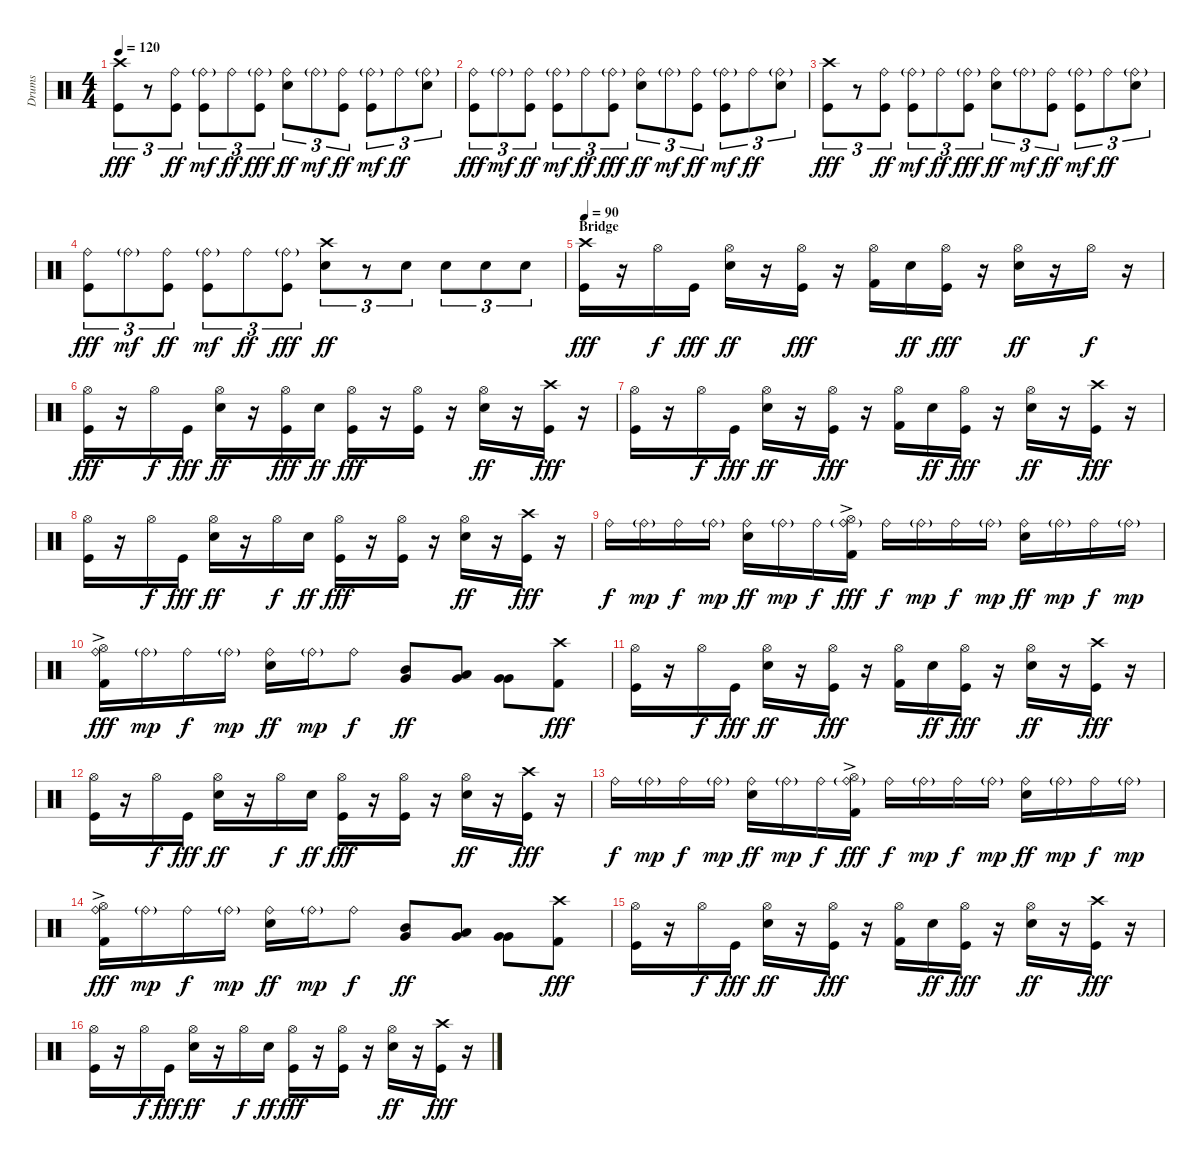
\track ("Drums" "Drums") {instrument percussion}
\staff {score}
\articulation defaults
\ts (4 4)
\tempo 120
\clef neutral
\ks c
("Crash high (hit)" "Kick (hit)").8{tu (3 2) dy fff} r.8{tu (3 2)} ("Ride (bell)" "Kick (hit)").8{tu (3 2) dy ff} ("Ride (bell)"{g} "Kick (hit)").8{tu (3 2) dy mf} "Ride (bell)".8{tu (3 2) dy ff} ("Ride (bell)"{g} "Kick (hit)").8{tu (3 2) dy fff} ("Ride (bell)" "Snare (hit) 2").8{tu (3 2) dy ff} "Ride (bell)"{g}.8{tu (3 2) dy mf} ("Ride (bell)" "Kick (hit)").8{tu (3 2) dy ff} ("Ride (bell)"{g} "Kick (hit)").8{tu (3 2) dy mf} "Ride (bell)".8{tu (3 2) dy ff} ("Ride (bell)"{g} "Snare (hit) 2").8{tu (3 2)} |
("Ride (bell)" "Kick (hit)").8{tu (3 2) dy fff} "Ride (bell)"{g}.8{tu (3 2) dy mf} ("Ride (bell)" "Kick (hit)").8{tu (3 2) dy ff} ("Ride (bell)"{g} "Kick (hit)").8{tu (3 2) dy mf} "Ride (bell)".8{tu (3 2) dy ff} ("Ride (bell)"{g} "Kick (hit)").8{tu (3 2) dy fff} ("Ride (bell)" "Snare (hit) 2").8{tu (3 2) dy ff} "Ride (bell)"{g}.8{tu (3 2) dy mf} ("Ride (bell)" "Kick (hit)").8{tu (3 2) dy ff} ("Ride (bell)"{g} "Kick (hit)").8{tu (3 2) dy mf} "Ride (bell)".8{tu (3 2) dy ff} ("Ride (bell)"{g} "Snare (hit) 2").8{tu (3 2)} |
("Crash high (hit)" "Kick (hit)").8{tu (3 2) dy fff} r.8{tu (3 2)} ("Ride (bell)" "Kick (hit)").8{tu (3 2) dy ff} ("Ride (bell)"{g} "Kick (hit)").8{tu (3 2) dy mf} "Ride (bell)".8{tu (3 2) dy ff} ("Ride (bell)"{g} "Kick (hit)").8{tu (3 2) dy fff} ("Ride (bell)" "Snare (hit) 2").8{tu (3 2) dy ff} "Ride (bell)"{g}.8{tu (3 2) dy mf} ("Ride (bell)" "Kick (hit)").8{tu (3 2) dy ff} ("Ride (bell)"{g} "Kick (hit)").8{tu (3 2) dy mf} "Ride (bell)".8{tu (3 2) dy ff} ("Ride (bell)"{g} "Snare (hit) 2").8{tu (3 2)} |
("Ride (bell)" "Kick (hit)").8{tu (3 2) dy fff} "Ride (bell)"{g}.8{tu (3 2) dy mf} ("Ride (bell)" "Kick (hit)").8{tu (3 2) dy ff} ("Ride (bell)"{g} "Kick (hit)").8{tu (3 2) dy mf} "Ride (bell)".8{tu (3 2) dy ff} ("Ride (bell)"{g} "Kick (hit)").8{tu (3 2) dy fff} ("Crash high (hit)" "Snare (hit) 2").8{tu (3 2) dy ff} r.8{tu (3 2)} "Snare (hit) 2".8{tu (3 2)} "Snare (hit) 2".8{tu (3 2)} "Snare (hit) 2".8{tu (3 2)} "Snare (hit) 2".8{tu (3 2)} |
\section ("" "Bridge")
\tempo 90
("Crash high (hit)" "Kick (hit)").16{dy fff} r.16 "Hi-Hat (open)".16{dy f} "Kick (hit)".16{dy fff} ("Hi-Hat (open)" "Snare (hit) 2").16{dy ff} r.16 ("Hi-Hat (open)" "Kick (hit)").16{dy fff} r.16 ("Hi-Hat (open)" "Kick (hit) 2").16 "Snare (hit) 2".16{dy ff} ("Hi-Hat (open)" "Kick (hit)").16{dy fff} r.16 ("Hi-Hat (open)" "Snare (hit) 2").16{dy ff} r.16 "Hi-Hat (open)".16{dy f} r.16 |
("Hi-Hat (open)" "Kick (hit)").16{dy fff} r.16 "Hi-Hat (open)".16{dy f} "Kick (hit)".16{dy fff} ("Hi-Hat (open)" "Snare (hit) 2").16{dy ff} r.16 ("Hi-Hat (open)" "Kick (hit)").16{dy fff} "Snare (hit) 2".16{dy ff} ("Hi-Hat (open)" "Kick (hit)").16{dy fff} r.16 ("Hi-Hat (open)" "Kick (hit)").16 r.16 ("Hi-Hat (open)" "Snare (hit) 2").16{dy ff} r.16 ("Crash high (hit)" "Kick (hit)").16{dy fff} r.16 |
("Hi-Hat (open)" "Kick (hit)").16 r.16 "Hi-Hat (open)".16{dy f} "Kick (hit)".16{dy fff} ("Hi-Hat (open)" "Snare (hit) 2").16{dy ff} r.16 ("Hi-Hat (open)" "Kick (hit)").16{dy fff} r.16 ("Hi-Hat (open)" "Kick (hit) 2").16 "Snare (hit) 2".16{dy ff} ("Hi-Hat (open)" "Kick (hit)").16{dy fff} r.16 ("Hi-Hat (open)" "Snare (hit) 2").16{dy ff} r.16 ("Crash high (hit)" "Kick (hit)").16{dy fff} r.16 |
("Hi-Hat (open)" "Kick (hit)").16 r.16 "Hi-Hat (open)".16{dy f} "Kick (hit)".16{dy fff} ("Hi-Hat (open)" "Snare (hit) 2").16{dy ff} r.16 "Hi-Hat (open)".16{dy f} "Snare (hit) 2".16{dy ff} ("Hi-Hat (open)" "Kick (hit)").16{dy fff} r.16 ("Hi-Hat (open)" "Kick (hit)").16 r.16 ("Hi-Hat (open)" "Snare (hit) 2").16{dy ff} r.16 ("Crash high (hit)" "Kick (hit)").16{dy fff} r.16 |
"Ride (bell)".16{dy f} "Ride (bell)"{g}.16{dy mp} "Ride (bell)".16{dy f} "Ride (bell)"{g}.16{dy mp} ("Ride (bell)" "Snare (hit) 2").16{dy ff} "Ride (bell)"{g}.16{dy mp} "Ride (bell)".16{dy f} ("Hi-Hat (open)"{ac} "Ride (bell)"{g} "Kick (hit) 2").16{dy fff} "Ride (bell)".16{dy f} "Ride (bell)"{g}.16{dy mp} "Ride (bell)".16{dy f} "Ride (bell)"{g}.16{dy mp} ("Ride (bell)" "Snare (hit) 2").16{dy ff} "Ride (bell)"{g}.16{dy mp} "Ride (bell)".16{dy f} "Ride (bell)"{g}.16{dy mp} |
("Hi-Hat (open)"{ac} "Ride (bell)" "Kick (hit) 2").16{dy fff} "Ride (bell)"{g}.16{dy mp} "Ride (bell)".16{dy f} "Ride (bell)"{g}.16{dy mp} ("Ride (bell)" "Snare (hit) 2").16{dy ff} "Ride (bell)"{g}.16{dy mp} "Ride (bell)".8{dy f} ("Mid Tom (hit)" "Very Low Tom (hit)").8{dy ff} ("Low Tom (hit)" "Very Low Tom (hit)").8 ("Very Low Tom (hit)" "Very Low Tom (hit)").8 ("Crash high (hit)" "Kick (hit) 2").8{dy fff} |
("Hi-Hat (open)" "Kick (hit)").16 r.16 "Hi-Hat (open)".16{dy f} "Kick (hit)".16{dy fff} ("Hi-Hat (open)" "Snare (hit) 2").16{dy ff} r.16 ("Hi-Hat (open)" "Kick (hit)").16{dy fff} r.16 ("Hi-Hat (open)" "Kick (hit) 2").16 "Snare (hit) 2".16{dy ff} ("Hi-Hat (open)" "Kick (hit)").16{dy fff} r.16 ("Hi-Hat (open)" "Snare (hit) 2").16{dy ff} r.16 ("Crash high (hit)" "Kick (hit)").16{dy fff} r.16 |
("Hi-Hat (open)" "Kick (hit)").16 r.16 "Hi-Hat (open)".16{dy f} "Kick (hit)".16{dy fff} ("Hi-Hat (open)" "Snare (hit) 2").16{dy ff} r.16 "Hi-Hat (open)".16{dy f} "Snare (hit) 2".16{dy ff} ("Hi-Hat (open)" "Kick (hit)").16{dy fff} r.16 ("Hi-Hat (open)" "Kick (hit)").16 r.16 ("Hi-Hat (open)" "Snare (hit) 2").16{dy ff} r.16 ("Crash high (hit)" "Kick (hit)").16{dy fff} r.16 |
"Ride (bell)".16{dy f} "Ride (bell)"{g}.16{dy mp} "Ride (bell)".16{dy f} "Ride (bell)"{g}.16{dy mp} ("Ride (bell)" "Snare (hit) 2").16{dy ff} "Ride (bell)"{g}.16{dy mp} "Ride (bell)".16{dy f} ("Hi-Hat (open)"{ac} "Ride (bell)"{g} "Kick (hit) 2").16{dy fff} "Ride (bell)".16{dy f} "Ride (bell)"{g}.16{dy mp} "Ride (bell)".16{dy f} "Ride (bell)"{g}.16{dy mp} ("Ride (bell)" "Snare (hit) 2").16{dy ff} "Ride (bell)"{g}.16{dy mp} "Ride (bell)".16{dy f} "Ride (bell)"{g}.16{dy mp} |
("Hi-Hat (open)"{ac} "Ride (bell)" "Kick (hit) 2").16{dy fff} "Ride (bell)"{g}.16{dy mp} "Ride (bell)".16{dy f} "Ride (bell)"{g}.16{dy mp} ("Ride (bell)" "Snare (hit) 2").16{dy ff} "Ride (bell)"{g}.16{dy mp} "Ride (bell)".8{dy f} ("Mid Tom (hit)" "Very Low Tom (hit)").8{dy ff} ("Low Tom (hit)" "Very Low Tom (hit)").8 ("Very Low Tom (hit)" "Very Low Tom (hit)").8 ("Crash high (hit)" "Kick (hit) 2").8{dy fff} |
("Hi-Hat (open)" "Kick (hit)").16 r.16 "Hi-Hat (open)".16{dy f} "Kick (hit)".16{dy fff} ("Hi-Hat (open)" "Snare (hit) 2").16{dy ff} r.16 ("Hi-Hat (open)" "Kick (hit)").16{dy fff} r.16 ("Hi-Hat (open)" "Kick (hit) 2").16 "Snare (hit) 2".16{dy ff} ("Hi-Hat (open)" "Kick (hit)").16{dy fff} r.16 ("Hi-Hat (open)" "Snare (hit) 2").16{dy ff} r.16 ("Crash high (hit)" "Kick (hit)").16{dy fff} r.16 |
("Hi-Hat (open)" "Kick (hit)").16 r.16 "Hi-Hat (open)".16{dy f} "Kick (hit)".16{dy fff} ("Hi-Hat (open)" "Snare (hit) 2").16{dy ff} r.16 "Hi-Hat (open)".16{dy f} "Snare (hit) 2".16{dy ff} ("Hi-Hat (open)" "Kick (hit)").16{dy fff} r.16 ("Hi-Hat (open)" "Kick (hit)").16 r.16 ("Hi-Hat (open)" "Snare (hit) 2").16{dy ff} r.16 ("Crash high (hit)" "Kick (hit)").16{dy fff} r.16
